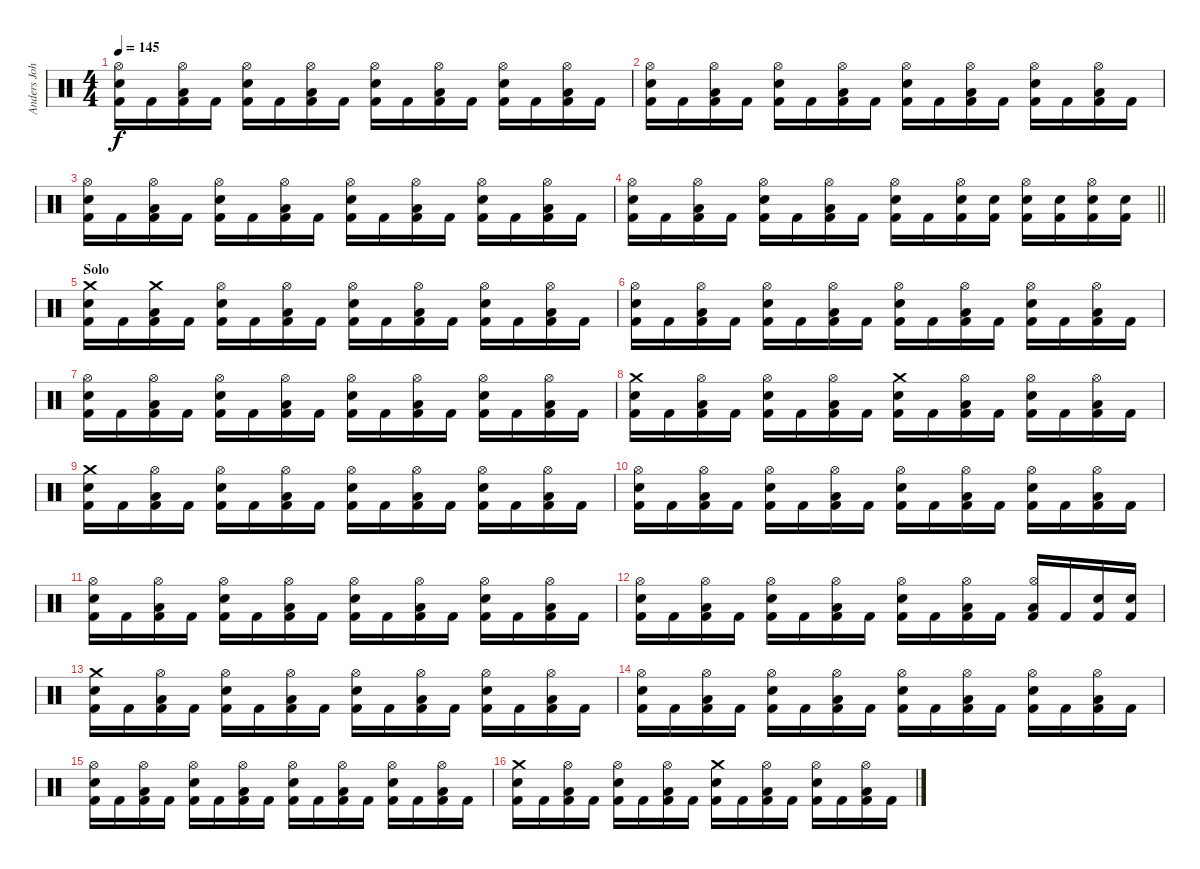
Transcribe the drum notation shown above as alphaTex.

\track ("Anders Johansson (Drums)" "Anders Joh") {instrument percussion}
\staff {score}
\articulation defaults
\ts (4 4)
\tempo 145
\clef neutral
\ks c
("Kick (hit) 2" "Electric Snare (hit)" "Hi-Hat (open)").16{dy f} "Kick (hit) 2".16 ("Kick (hit) 2" "Low Tom (hit)" "Hi-Hat (open)").16 "Kick (hit) 2".16 ("Kick (hit) 2" "Electric Snare (hit)" "Hi-Hat (open)").16 "Kick (hit) 2".16 ("Kick (hit) 2" "Low Tom (hit)" "Hi-Hat (open)").16 "Kick (hit) 2".16 ("Kick (hit) 2" "Electric Snare (hit)" "Hi-Hat (open)").16 "Kick (hit) 2".16 ("Kick (hit) 2" "Low Tom (hit)" "Hi-Hat (open)").16 "Kick (hit) 2".16 ("Kick (hit) 2" "Electric Snare (hit)" "Hi-Hat (open)").16 "Kick (hit) 2".16 ("Kick (hit) 2" "Low Tom (hit)" "Hi-Hat (open)").16 "Kick (hit) 2".16 |
("Kick (hit) 2" "Electric Snare (hit)" "Hi-Hat (open)").16 "Kick (hit) 2".16 ("Kick (hit) 2" "Low Tom (hit)" "Hi-Hat (open)").16 "Kick (hit) 2".16 ("Kick (hit) 2" "Electric Snare (hit)" "Hi-Hat (open)").16 "Kick (hit) 2".16 ("Kick (hit) 2" "Low Tom (hit)" "Hi-Hat (open)").16 "Kick (hit) 2".16 ("Kick (hit) 2" "Electric Snare (hit)" "Hi-Hat (open)").16 "Kick (hit) 2".16 ("Kick (hit) 2" "Low Tom (hit)" "Hi-Hat (open)").16 "Kick (hit) 2".16 ("Kick (hit) 2" "Electric Snare (hit)" "Hi-Hat (open)").16 "Kick (hit) 2".16 ("Kick (hit) 2" "Low Tom (hit)" "Hi-Hat (open)").16 "Kick (hit) 2".16 |
("Kick (hit) 2" "Electric Snare (hit)" "Hi-Hat (open)").16 "Kick (hit) 2".16 ("Kick (hit) 2" "Low Tom (hit)" "Hi-Hat (open)").16 "Kick (hit) 2".16 ("Kick (hit) 2" "Electric Snare (hit)" "Hi-Hat (open)").16 "Kick (hit) 2".16 ("Kick (hit) 2" "Low Tom (hit)" "Hi-Hat (open)").16 "Kick (hit) 2".16 ("Kick (hit) 2" "Electric Snare (hit)" "Hi-Hat (open)").16 "Kick (hit) 2".16 ("Kick (hit) 2" "Low Tom (hit)" "Hi-Hat (open)").16 "Kick (hit) 2".16 ("Kick (hit) 2" "Electric Snare (hit)" "Hi-Hat (open)").16 "Kick (hit) 2".16 ("Kick (hit) 2" "Low Tom (hit)" "Hi-Hat (open)").16 "Kick (hit) 2".16 |
\barLineRight lightlight
("Kick (hit) 2" "Electric Snare (hit)" "Hi-Hat (open)").16 "Kick (hit) 2".16 ("Kick (hit) 2" "Low Tom (hit)" "Hi-Hat (open)").16 "Kick (hit) 2".16 ("Kick (hit) 2" "Electric Snare (hit)" "Hi-Hat (open)").16 "Kick (hit) 2".16 ("Kick (hit) 2" "Low Tom (hit)" "Hi-Hat (open)").16 "Kick (hit) 2".16 ("Kick (hit) 2" "Electric Snare (hit)" "Hi-Hat (open)").16 "Kick (hit) 2".16 ("Kick (hit) 2" "Electric Snare (hit)" "Hi-Hat (open)").16 ("Kick (hit) 2" "Electric Snare (hit)").16 ("Kick (hit) 2" "Electric Snare (hit)" "Hi-Hat (open)").16 ("Kick (hit) 2" "Electric Snare (hit)").16 ("Kick (hit) 2" "Electric Snare (hit)" "Hi-Hat (open)").16 ("Kick (hit) 2" "Electric Snare (hit)").16 |
\section ("" "Solo")
("Kick (hit) 2" "Electric Snare (hit)" "Crash medium (hit)").16 "Kick (hit) 2".16 ("Kick (hit) 2" "Low Tom (hit)" "Crash medium (hit)").16 "Kick (hit) 2".16 ("Kick (hit) 2" "Electric Snare (hit)" "Hi-Hat (open)").16 "Kick (hit) 2".16 ("Kick (hit) 2" "Low Tom (hit)" "Hi-Hat (open)").16 "Kick (hit) 2".16 ("Kick (hit) 2" "Electric Snare (hit)" "Hi-Hat (open)").16 "Kick (hit) 2".16 ("Kick (hit) 2" "Low Tom (hit)" "Hi-Hat (open)").16 "Kick (hit) 2".16 ("Kick (hit) 2" "Electric Snare (hit)" "Hi-Hat (open)").16 "Kick (hit) 2".16 ("Kick (hit) 2" "Low Tom (hit)" "Hi-Hat (open)").16 "Kick (hit) 2".16 |
("Kick (hit) 2" "Electric Snare (hit)" "Hi-Hat (open)").16 "Kick (hit) 2".16 ("Kick (hit) 2" "Low Tom (hit)" "Hi-Hat (open)").16 "Kick (hit) 2".16 ("Kick (hit) 2" "Electric Snare (hit)" "Hi-Hat (open)").16 "Kick (hit) 2".16 ("Kick (hit) 2" "Low Tom (hit)" "Hi-Hat (open)").16 "Kick (hit) 2".16 ("Kick (hit) 2" "Electric Snare (hit)" "Hi-Hat (open)").16 "Kick (hit) 2".16 ("Kick (hit) 2" "Low Tom (hit)" "Hi-Hat (open)").16 "Kick (hit) 2".16 ("Kick (hit) 2" "Electric Snare (hit)" "Hi-Hat (open)").16 "Kick (hit) 2".16 ("Kick (hit) 2" "Low Tom (hit)" "Hi-Hat (open)").16 "Kick (hit) 2".16 |
("Kick (hit) 2" "Electric Snare (hit)" "Hi-Hat (open)").16 "Kick (hit) 2".16 ("Kick (hit) 2" "Low Tom (hit)" "Hi-Hat (open)").16 "Kick (hit) 2".16 ("Kick (hit) 2" "Electric Snare (hit)" "Hi-Hat (open)").16 "Kick (hit) 2".16 ("Kick (hit) 2" "Low Tom (hit)" "Hi-Hat (open)").16 "Kick (hit) 2".16 ("Kick (hit) 2" "Electric Snare (hit)" "Hi-Hat (open)").16 "Kick (hit) 2".16 ("Kick (hit) 2" "Low Tom (hit)" "Hi-Hat (open)").16 "Kick (hit) 2".16 ("Kick (hit) 2" "Electric Snare (hit)" "Hi-Hat (open)").16 "Kick (hit) 2".16 ("Kick (hit) 2" "Low Tom (hit)" "Hi-Hat (open)").16 "Kick (hit) 2".16 |
("Kick (hit) 2" "Electric Snare (hit)" "Crash medium (hit)").16 "Kick (hit) 2".16 ("Kick (hit) 2" "Low Tom (hit)" "Hi-Hat (open)").16 "Kick (hit) 2".16 ("Kick (hit) 2" "Electric Snare (hit)" "Hi-Hat (open)").16 "Kick (hit) 2".16 ("Kick (hit) 2" "Low Tom (hit)" "Hi-Hat (open)").16 "Kick (hit) 2".16 ("Kick (hit) 2" "Electric Snare (hit)" "Crash medium (hit)").16 "Kick (hit) 2".16 ("Kick (hit) 2" "Low Tom (hit)" "Hi-Hat (open)").16 "Kick (hit) 2".16 ("Kick (hit) 2" "Electric Snare (hit)" "Hi-Hat (open)").16 "Kick (hit) 2".16 ("Kick (hit) 2" "Low Tom (hit)" "Hi-Hat (open)").16 "Kick (hit) 2".16 |
("Kick (hit) 2" "Electric Snare (hit)" "Crash medium (hit)").16 "Kick (hit) 2".16 ("Kick (hit) 2" "Low Tom (hit)" "Hi-Hat (open)").16 "Kick (hit) 2".16 ("Kick (hit) 2" "Electric Snare (hit)" "Hi-Hat (open)").16 "Kick (hit) 2".16 ("Kick (hit) 2" "Low Tom (hit)" "Hi-Hat (open)").16 "Kick (hit) 2".16 ("Kick (hit) 2" "Electric Snare (hit)" "Hi-Hat (open)").16 "Kick (hit) 2".16 ("Kick (hit) 2" "Low Tom (hit)" "Hi-Hat (open)").16 "Kick (hit) 2".16 ("Kick (hit) 2" "Electric Snare (hit)" "Hi-Hat (open)").16 "Kick (hit) 2".16 ("Kick (hit) 2" "Low Tom (hit)" "Hi-Hat (open)").16 "Kick (hit) 2".16 |
("Kick (hit) 2" "Electric Snare (hit)" "Hi-Hat (open)").16 "Kick (hit) 2".16 ("Kick (hit) 2" "Low Tom (hit)" "Hi-Hat (open)").16 "Kick (hit) 2".16 ("Kick (hit) 2" "Electric Snare (hit)" "Hi-Hat (open)").16 "Kick (hit) 2".16 ("Kick (hit) 2" "Low Tom (hit)" "Hi-Hat (open)").16 "Kick (hit) 2".16 ("Kick (hit) 2" "Electric Snare (hit)" "Hi-Hat (open)").16 "Kick (hit) 2".16 ("Kick (hit) 2" "Low Tom (hit)" "Hi-Hat (open)").16 "Kick (hit) 2".16 ("Kick (hit) 2" "Electric Snare (hit)" "Hi-Hat (open)").16 "Kick (hit) 2".16 ("Kick (hit) 2" "Low Tom (hit)" "Hi-Hat (open)").16 "Kick (hit) 2".16 |
("Kick (hit) 2" "Electric Snare (hit)" "Hi-Hat (open)").16 "Kick (hit) 2".16 ("Kick (hit) 2" "Low Tom (hit)" "Hi-Hat (open)").16 "Kick (hit) 2".16 ("Kick (hit) 2" "Electric Snare (hit)" "Hi-Hat (open)").16 "Kick (hit) 2".16 ("Kick (hit) 2" "Low Tom (hit)" "Hi-Hat (open)").16 "Kick (hit) 2".16 ("Kick (hit) 2" "Electric Snare (hit)" "Hi-Hat (open)").16 "Kick (hit) 2".16 ("Kick (hit) 2" "Low Tom (hit)" "Hi-Hat (open)").16 "Kick (hit) 2".16 ("Kick (hit) 2" "Electric Snare (hit)" "Hi-Hat (open)").16 "Kick (hit) 2".16 ("Kick (hit) 2" "Low Tom (hit)" "Hi-Hat (open)").16 "Kick (hit) 2".16 |
("Kick (hit) 2" "Electric Snare (hit)" "Hi-Hat (open)").16 "Kick (hit) 2".16 ("Kick (hit) 2" "Low Tom (hit)" "Hi-Hat (open)").16 "Kick (hit) 2".16 ("Kick (hit) 2" "Electric Snare (hit)" "Hi-Hat (open)").16 "Kick (hit) 2".16 ("Kick (hit) 2" "Low Tom (hit)" "Hi-Hat (open)").16 "Kick (hit) 2".16 ("Kick (hit) 2" "Electric Snare (hit)" "Hi-Hat (open)").16 "Kick (hit) 2".16 ("Kick (hit) 2" "Low Tom (hit)" "Hi-Hat (open)").16 "Kick (hit) 2".16 ("Kick (hit) 2" "Low Tom (hit)" "Hi-Hat (open)").16 "Kick (hit) 2".16 ("Kick (hit) 2" "Electric Snare (hit)").16 ("Kick (hit) 2" "Electric Snare (hit)").16 |
("Kick (hit) 2" "Electric Snare (hit)" "Crash medium (hit)").16 "Kick (hit) 2".16 ("Kick (hit) 2" "Low Tom (hit)" "Hi-Hat (open)").16 "Kick (hit) 2".16 ("Kick (hit) 2" "Electric Snare (hit)" "Hi-Hat (open)").16 "Kick (hit) 2".16 ("Kick (hit) 2" "Low Tom (hit)" "Hi-Hat (open)").16 "Kick (hit) 2".16 ("Kick (hit) 2" "Electric Snare (hit)" "Hi-Hat (open)").16 "Kick (hit) 2".16 ("Kick (hit) 2" "Low Tom (hit)" "Hi-Hat (open)").16 "Kick (hit) 2".16 ("Kick (hit) 2" "Electric Snare (hit)" "Hi-Hat (open)").16 "Kick (hit) 2".16 ("Kick (hit) 2" "Low Tom (hit)" "Hi-Hat (open)").16 "Kick (hit) 2".16 |
("Kick (hit) 2" "Electric Snare (hit)" "Hi-Hat (open)").16 "Kick (hit) 2".16 ("Kick (hit) 2" "Low Tom (hit)" "Hi-Hat (open)").16 "Kick (hit) 2".16 ("Kick (hit) 2" "Electric Snare (hit)" "Hi-Hat (open)").16 "Kick (hit) 2".16 ("Kick (hit) 2" "Low Tom (hit)" "Hi-Hat (open)").16 "Kick (hit) 2".16 ("Kick (hit) 2" "Electric Snare (hit)" "Hi-Hat (open)").16 "Kick (hit) 2".16 ("Kick (hit) 2" "Low Tom (hit)" "Hi-Hat (open)").16 "Kick (hit) 2".16 ("Kick (hit) 2" "Electric Snare (hit)" "Hi-Hat (open)").16 "Kick (hit) 2".16 ("Kick (hit) 2" "Low Tom (hit)" "Hi-Hat (open)").16 "Kick (hit) 2".16 |
("Kick (hit) 2" "Electric Snare (hit)" "Hi-Hat (open)").16 "Kick (hit) 2".16 ("Kick (hit) 2" "Low Tom (hit)" "Hi-Hat (open)").16 "Kick (hit) 2".16 ("Kick (hit) 2" "Electric Snare (hit)" "Hi-Hat (open)").16 "Kick (hit) 2".16 ("Kick (hit) 2" "Low Tom (hit)" "Hi-Hat (open)").16 "Kick (hit) 2".16 ("Kick (hit) 2" "Electric Snare (hit)" "Hi-Hat (open)").16 "Kick (hit) 2".16 ("Kick (hit) 2" "Low Tom (hit)" "Hi-Hat (open)").16 "Kick (hit) 2".16 ("Kick (hit) 2" "Electric Snare (hit)" "Hi-Hat (open)").16 "Kick (hit) 2".16 ("Kick (hit) 2" "Low Tom (hit)" "Hi-Hat (open)").16 "Kick (hit) 2".16 |
("Kick (hit) 2" "Electric Snare (hit)" "Crash medium (hit)").16 "Kick (hit) 2".16 ("Kick (hit) 2" "Low Tom (hit)" "Hi-Hat (open)").16 "Kick (hit) 2".16 ("Kick (hit) 2" "Electric Snare (hit)" "Hi-Hat (open)").16 "Kick (hit) 2".16 ("Kick (hit) 2" "Low Tom (hit)" "Hi-Hat (open)").16 "Kick (hit) 2".16 ("Kick (hit) 2" "Electric Snare (hit)" "Crash medium (hit)").16 "Kick (hit) 2".16 ("Kick (hit) 2" "Low Tom (hit)" "Hi-Hat (open)").16 "Kick (hit) 2".16 ("Kick (hit) 2" "Electric Snare (hit)" "Hi-Hat (open)").16 "Kick (hit) 2".16 ("Kick (hit) 2" "Low Tom (hit)" "Hi-Hat (open)").16 "Kick (hit) 2".16
